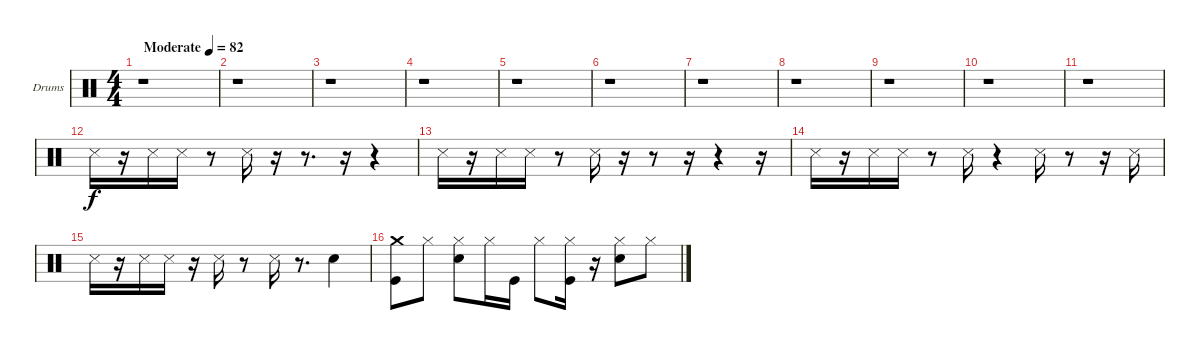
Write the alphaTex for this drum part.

\bracketExtendMode groupsimilarinstruments
\firstSystemTrackNameOrientation horizontal
\otherSystemsTrackNameOrientation horizontal
\track ("Drumkit" "Drums") {instrument percussion}
\staff {score}
\articulation defaults
\ts (4 4)
\beaming (8 2 2 2 2)
\tempo (82 "Moderate")
\clef neutral
\ks c
r.1{dy f} |
r.1 |
r.1 |
r.1 |
r.1 |
r.1 |
r.1 |
r.1 |
r.1 |
r.1 |
r.1 |
"Snare (side stick) 3".16 r.16 "Snare (side stick) 3".16 "Snare (side stick) 3".16 r.8 "Snare (side stick) 3".16 r.16 r.8{d} r.16 r.4 |
"Snare (side stick) 3".16 r.16 "Snare (side stick) 3".16 "Snare (side stick) 3".16 r.8 "Snare (side stick) 3".16 r.16 r.8 r.16 r.4 r.16 |
"Snare (side stick) 3".16 r.16 "Snare (side stick) 3".16 "Snare (side stick) 3".16 r.8 "Snare (side stick) 3".16 r.4 "Snare (side stick) 3".16 r.8 r.16 "Snare (side stick) 3".16 |
"Snare (side stick) 3".16 r.16 "Snare (side stick) 3".16 "Snare (side stick) 3".16 r.16 "Snare (side stick) 3".16 r.8 "Snare (side stick) 3".16 r.8{d} "Snare (hit) 2".4 |
("Kick (hit)" "Crash medium (hit)").8 "Hi-Hat (closed)".8 ("Hi-Hat (closed)" "Snare (hit) 2").8 "Hi-Hat (closed)".16 "Kick (hit)".16 "Hi-Hat (closed)".8 ("Kick (hit)" "Hi-Hat (closed)").16 r.16 ("Snare (hit) 2" "Hi-Hat (closed)").8 "Hi-Hat (closed)".8
